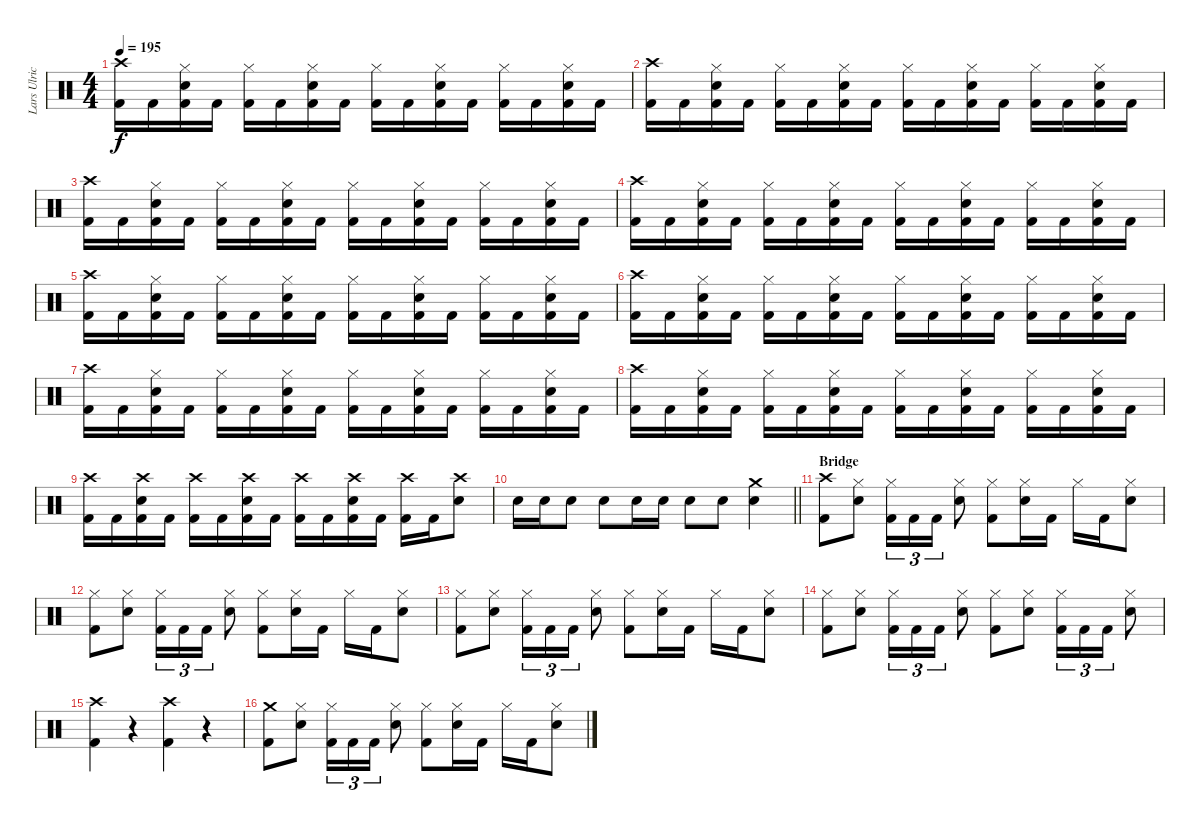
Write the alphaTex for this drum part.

\track ("Lars Ulrich" "Lars Ulric") {instrument percussion}
\staff {score}
\articulation defaults
\ts (4 4)
\tempo 195
\clef neutral
\ks c
("Crash high (hit)" "Kick (hit) 2").16{dy f} "Kick (hit) 2".16 ("Hi-Hat (closed)" "Electric Snare (hit)" "Kick (hit) 2").16 "Kick (hit) 2".16 ("Hi-Hat (closed)" "Kick (hit) 2").16 "Kick (hit) 2".16 ("Hi-Hat (closed)" "Electric Snare (hit)" "Kick (hit) 2").16 "Kick (hit) 2".16 ("Hi-Hat (closed)" "Kick (hit) 2").16 "Kick (hit) 2".16 ("Hi-Hat (closed)" "Electric Snare (hit)" "Kick (hit) 2").16 "Kick (hit) 2".16 ("Hi-Hat (closed)" "Kick (hit) 2").16 "Kick (hit) 2".16 ("Hi-Hat (closed)" "Electric Snare (hit)" "Kick (hit) 2").16 "Kick (hit) 2".16 |
("Crash high (hit)" "Kick (hit) 2").16 "Kick (hit) 2".16 ("Hi-Hat (closed)" "Electric Snare (hit)" "Kick (hit) 2").16 "Kick (hit) 2".16 ("Hi-Hat (closed)" "Kick (hit) 2").16 "Kick (hit) 2".16 ("Hi-Hat (closed)" "Electric Snare (hit)" "Kick (hit) 2").16 "Kick (hit) 2".16 ("Hi-Hat (closed)" "Kick (hit) 2").16 "Kick (hit) 2".16 ("Hi-Hat (closed)" "Electric Snare (hit)" "Kick (hit) 2").16 "Kick (hit) 2".16 ("Hi-Hat (closed)" "Kick (hit) 2").16 "Kick (hit) 2".16 ("Hi-Hat (closed)" "Electric Snare (hit)" "Kick (hit) 2").16 "Kick (hit) 2".16 |
("Crash high (hit)" "Kick (hit) 2").16 "Kick (hit) 2".16 ("Hi-Hat (closed)" "Electric Snare (hit)" "Kick (hit) 2").16 "Kick (hit) 2".16 ("Hi-Hat (closed)" "Kick (hit) 2").16 "Kick (hit) 2".16 ("Hi-Hat (closed)" "Electric Snare (hit)" "Kick (hit) 2").16 "Kick (hit) 2".16 ("Hi-Hat (closed)" "Kick (hit) 2").16 "Kick (hit) 2".16 ("Hi-Hat (closed)" "Electric Snare (hit)" "Kick (hit) 2").16 "Kick (hit) 2".16 ("Hi-Hat (closed)" "Kick (hit) 2").16 "Kick (hit) 2".16 ("Hi-Hat (closed)" "Electric Snare (hit)" "Kick (hit) 2").16 "Kick (hit) 2".16 |
("Crash high (hit)" "Kick (hit) 2").16 "Kick (hit) 2".16 ("Hi-Hat (closed)" "Electric Snare (hit)" "Kick (hit) 2").16 "Kick (hit) 2".16 ("Hi-Hat (closed)" "Kick (hit) 2").16 "Kick (hit) 2".16 ("Hi-Hat (closed)" "Electric Snare (hit)" "Kick (hit) 2").16 "Kick (hit) 2".16 ("Hi-Hat (closed)" "Kick (hit) 2").16 "Kick (hit) 2".16 ("Hi-Hat (closed)" "Electric Snare (hit)" "Kick (hit) 2").16 "Kick (hit) 2".16 ("Hi-Hat (closed)" "Kick (hit) 2").16 "Kick (hit) 2".16 ("Hi-Hat (closed)" "Electric Snare (hit)" "Kick (hit) 2").16 "Kick (hit) 2".16 |
("Crash high (hit)" "Kick (hit) 2").16 "Kick (hit) 2".16 ("Hi-Hat (closed)" "Electric Snare (hit)" "Kick (hit) 2").16 "Kick (hit) 2".16 ("Hi-Hat (closed)" "Kick (hit) 2").16 "Kick (hit) 2".16 ("Hi-Hat (closed)" "Electric Snare (hit)" "Kick (hit) 2").16 "Kick (hit) 2".16 ("Hi-Hat (closed)" "Kick (hit) 2").16 "Kick (hit) 2".16 ("Hi-Hat (closed)" "Electric Snare (hit)" "Kick (hit) 2").16 "Kick (hit) 2".16 ("Hi-Hat (closed)" "Kick (hit) 2").16 "Kick (hit) 2".16 ("Hi-Hat (closed)" "Electric Snare (hit)" "Kick (hit) 2").16 "Kick (hit) 2".16 |
("Crash high (hit)" "Kick (hit) 2").16 "Kick (hit) 2".16 ("Hi-Hat (closed)" "Electric Snare (hit)" "Kick (hit) 2").16 "Kick (hit) 2".16 ("Hi-Hat (closed)" "Kick (hit) 2").16 "Kick (hit) 2".16 ("Hi-Hat (closed)" "Electric Snare (hit)" "Kick (hit) 2").16 "Kick (hit) 2".16 ("Hi-Hat (closed)" "Kick (hit) 2").16 "Kick (hit) 2".16 ("Hi-Hat (closed)" "Electric Snare (hit)" "Kick (hit) 2").16 "Kick (hit) 2".16 ("Hi-Hat (closed)" "Kick (hit) 2").16 "Kick (hit) 2".16 ("Hi-Hat (closed)" "Electric Snare (hit)" "Kick (hit) 2").16 "Kick (hit) 2".16 |
("Crash high (hit)" "Kick (hit) 2").16 "Kick (hit) 2".16 ("Hi-Hat (closed)" "Electric Snare (hit)" "Kick (hit) 2").16 "Kick (hit) 2".16 ("Hi-Hat (closed)" "Kick (hit) 2").16 "Kick (hit) 2".16 ("Hi-Hat (closed)" "Electric Snare (hit)" "Kick (hit) 2").16 "Kick (hit) 2".16 ("Hi-Hat (closed)" "Kick (hit) 2").16 "Kick (hit) 2".16 ("Hi-Hat (closed)" "Electric Snare (hit)" "Kick (hit) 2").16 "Kick (hit) 2".16 ("Hi-Hat (closed)" "Kick (hit) 2").16 "Kick (hit) 2".16 ("Hi-Hat (closed)" "Electric Snare (hit)" "Kick (hit) 2").16 "Kick (hit) 2".16 |
("Crash high (hit)" "Kick (hit) 2").16 "Kick (hit) 2".16 ("Hi-Hat (closed)" "Electric Snare (hit)" "Kick (hit) 2").16 "Kick (hit) 2".16 ("Hi-Hat (closed)" "Kick (hit) 2").16 "Kick (hit) 2".16 ("Hi-Hat (closed)" "Electric Snare (hit)" "Kick (hit) 2").16 "Kick (hit) 2".16 ("Hi-Hat (closed)" "Kick (hit) 2").16 "Kick (hit) 2".16 ("Hi-Hat (closed)" "Electric Snare (hit)" "Kick (hit) 2").16 "Kick (hit) 2".16 ("Hi-Hat (closed)" "Kick (hit) 2").16 "Kick (hit) 2".16 ("Hi-Hat (closed)" "Electric Snare (hit)" "Kick (hit) 2").16 "Kick (hit) 2".16 |
("Crash high (hit)" "Kick (hit) 2").16 "Kick (hit) 2".16 ("Crash high (hit)" "Electric Snare (hit)" "Kick (hit) 2").16 "Kick (hit) 2".16 ("Crash high (hit)" "Kick (hit) 2").16 "Kick (hit) 2".16 ("Crash high (hit)" "Electric Snare (hit)" "Kick (hit) 2").16 "Kick (hit) 2".16 ("Crash high (hit)" "Kick (hit) 2").16 "Kick (hit) 2".16 ("Crash high (hit)" "Electric Snare (hit)" "Kick (hit) 2").16 "Kick (hit) 2".16 ("Crash high (hit)" "Kick (hit) 2").16 "Kick (hit) 2".16 ("Crash high (hit)" "Electric Snare (hit)").8 |
\barLineRight lightlight "Electric Snare (hit)".16 "Electric Snare (hit)".16 "Electric Snare (hit)".8 "Electric Snare (hit)".8 "Electric Snare (hit)".16 "Electric Snare (hit)".16 "Electric Snare (hit)".8 "Electric Snare (hit)".8
("Crash medium (hit)" "Electric Snare (hit)").4 |
\section ("" "Bridge")
("Crash high (hit)" "Kick (hit) 2").8 ("Hi-Hat (closed)" "Electric Snare (hit)").8 ("Hi-Hat (closed)" "Kick (hit) 2").16{tu (3 2)} "Kick (hit) 2".16{tu (3 2)} "Kick (hit) 2".16{tu (3 2)} ("Hi-Hat (closed)" "Electric Snare (hit)").8 ("Hi-Hat (closed)" "Kick (hit) 2").8 ("Hi-Hat (closed)" "Electric Snare (hit)").16 "Kick (hit) 2".16 "Hi-Hat (closed)".16 "Kick (hit) 2".16 ("Hi-Hat (closed)" "Electric Snare (hit)").8 |
("Hi-Hat (closed)" "Kick (hit) 2").8 ("Hi-Hat (closed)" "Electric Snare (hit)").8 ("Hi-Hat (closed)" "Kick (hit) 2").16{tu (3 2)} "Kick (hit) 2".16{tu (3 2)} "Kick (hit) 2".16{tu (3 2)} ("Hi-Hat (closed)" "Electric Snare (hit)").8 ("Hi-Hat (closed)" "Kick (hit) 2").8 ("Hi-Hat (closed)" "Electric Snare (hit)").16 "Kick (hit) 2".16 "Hi-Hat (closed)".16 "Kick (hit) 2".16 ("Hi-Hat (closed)" "Electric Snare (hit)").8 |
("Hi-Hat (closed)" "Kick (hit) 2").8 ("Hi-Hat (closed)" "Electric Snare (hit)").8 ("Hi-Hat (closed)" "Kick (hit) 2").16{tu (3 2)} "Kick (hit) 2".16{tu (3 2)} "Kick (hit) 2".16{tu (3 2)} ("Hi-Hat (closed)" "Electric Snare (hit)").8 ("Hi-Hat (closed)" "Kick (hit) 2").8 ("Hi-Hat (closed)" "Electric Snare (hit)").16 "Kick (hit) 2".16 "Hi-Hat (closed)".16 "Kick (hit) 2".16 ("Hi-Hat (closed)" "Electric Snare (hit)").8 |
("Hi-Hat (closed)" "Kick (hit) 2").8 ("Hi-Hat (closed)" "Electric Snare (hit)").8 ("Hi-Hat (closed)" "Kick (hit) 2").16{tu (3 2)} "Kick (hit) 2".16{tu (3 2)} "Kick (hit) 2".16{tu (3 2)} ("Hi-Hat (closed)" "Electric Snare (hit)").8 ("Hi-Hat (closed)" "Kick (hit) 2").8 ("Hi-Hat (closed)" "Electric Snare (hit)").8 ("Hi-Hat (closed)" "Kick (hit) 2").16{tu (3 2)} "Kick (hit) 2".16{tu (3 2)} "Kick (hit) 2".16{tu (3 2)} ("Hi-Hat (closed)" "Electric Snare (hit)").8 |
("Crash high (hit)" "Kick (hit) 2").4 r.4{volume 0} ("Crash high (hit)" "Kick (hit) 2").4{volume 14} r.4{volume 0} |
("Crash medium (hit)" "Kick (hit) 2").8{volume 14} ("Hi-Hat (closed)" "Electric Snare (hit)").8 ("Hi-Hat (closed)" "Kick (hit) 2").16{tu (3 2)} "Kick (hit) 2".16{tu (3 2)} "Kick (hit) 2".16{tu (3 2)} ("Hi-Hat (closed)" "Electric Snare (hit)").8 ("Hi-Hat (closed)" "Kick (hit) 2").8 ("Hi-Hat (closed)" "Electric Snare (hit)").16 "Kick (hit) 2".16 "Hi-Hat (closed)".16 "Kick (hit) 2".16 ("Hi-Hat (closed)" "Electric Snare (hit)").8
